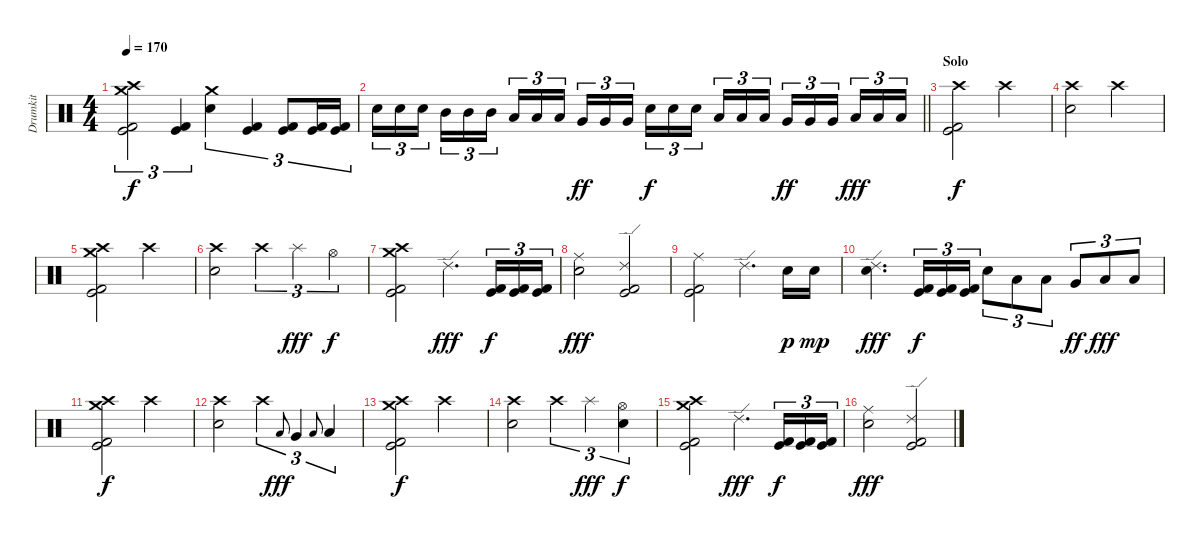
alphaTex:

\track ("Drumkit" "Drumkit") {instrument percussion}
\staff {score}
\articulation defaults
\ts (4 4)
\tempo 170
\clef neutral
\ks c
("Crash high (hit)" "Crash medium (hit)" "Kick (hit)" "Kick (hit) 2").2{tu (3 2) dy f} ("Kick (hit)" "Kick (hit) 2").4{tu (3 2)} ("Crash medium (hit)" "Electric Snare (hit)").4{tu (3 2)} ("Kick (hit)" "Kick (hit) 2").4{tu (3 2)} ("Kick (hit)" "Kick (hit) 2").8{tu (3 2)} ("Kick (hit)" "Kick (hit) 2").16{tu (3 2)} ("Kick (hit)" "Kick (hit) 2").16{tu (3 2)} |
\barLineRight lightlight "Electric Snare (hit)".16{tu (3 2)} "Electric Snare (hit)".16{tu (3 2)} "Electric Snare (hit)".16{tu (3 2) beam splitsecondary} "Mid Tom (hit)".16{tu (3 2)} "Mid Tom (hit)".16{tu (3 2)} "Mid Tom (hit)".16{tu (3 2)} "Low Tom (hit)".16{tu (3 2)} "Low Tom (hit)".16{tu (3 2)} "Low Tom (hit)".16{tu (3 2) beam splitsecondary} "Very Low Tom (hit)".16{tu (3 2) dy ff} "Very Low Tom (hit)".16{tu (3 2)} "Very Low Tom (hit)".16{tu (3 2)} "Electric Snare (hit)".16{tu (3 2) dy f} "Electric Snare (hit)".16{tu (3 2)} "Electric Snare (hit)".16{tu (3 2) beam splitsecondary} "Low Tom (hit)".16{tu (3 2)} "Low Tom (hit)".16{tu (3 2)} "Low Tom (hit)".16{tu (3 2)} "Very Low Tom (hit)".16{tu (3 2) dy ff} "Very Low Tom (hit)".16{tu (3 2)} "Very Low Tom (hit)".16{tu (3 2) beam splitsecondary} "Low Floor Tom (hit)".16{tu (3 2) dy fff} "Low Floor Tom (hit)".16{tu (3 2)} "Low Floor Tom (hit)".16{tu (3 2)}
|
\section ("" "Solo")
("Crash high (hit)" "Kick (hit)" "Kick (hit) 2").2{dy f} "Crash high (hit)".2 |
("Crash high (hit)" "Electric Snare (hit)").2 "Crash high (hit)".2 |
("Crash high (hit)" "Crash medium (hit)" "Kick (hit)" "Kick (hit) 2").2 "Crash high (hit)".2 |
("Crash high (hit)" "Electric Snare (hit)").2 "Crash high (hit)".4{tu (3 2)} "Splash (hit)".4{tu (3 2) dy fff} "Hi-Hat (open)".4{tu (3 2) dy f} |
("Crash high (hit)" "Crash medium (hit)" "Kick (hit)" "Kick (hit) 2").2 "Ride (edge) 2".4{d dy fff} ("Kick (hit)" "Kick (hit) 2").16{tu (3 2) dy f} ("Kick (hit)" "Kick (hit) 2").16{tu (3 2)} ("Kick (hit)" "Kick (hit) 2").16{tu (3 2)} |
("Ride (middle)" "Electric Snare (hit)").2{dy fff} ("Ride (edge) 2" "Kick (hit)" "Kick (hit) 2").2 |
("Ride (middle)" "Kick (hit)" "Kick (hit) 2").2 "Ride (edge) 2".4{d} "Electric Snare (hit)".16{dy p} "Electric Snare (hit)".16{dy mp} |
("Ride (edge) 2" "Electric Snare (hit)").4{d dy fff} ("Kick (hit)" "Kick (hit) 2").16{tu (3 2) dy f} ("Kick (hit)" "Kick (hit) 2").16{tu (3 2)} ("Kick (hit)" "Kick (hit) 2").16{tu (3 2)} "Electric Snare (hit)".8{tu (3 2)} "Low Tom (hit)".8{tu (3 2)} "Low Tom (hit)".8{tu (3 2)} "Very Low Tom (hit)".8{tu (3 2) dy ff} "Low Floor Tom (hit)".8{tu (3 2) dy fff} "Low Floor Tom (hit)".8{tu (3 2)} |
("Crash high (hit)" "Crash medium (hit)" "Kick (hit)" "Kick (hit) 2").2{dy f} "Crash high (hit)".2 |
("Crash high (hit)" "Electric Snare (hit)").2 "Crash high (hit)".4{tu (3 2)} "Low Tom (hit)".8{gr onbeat dy fff} "Very Low Tom (hit)".4{tu (3 2)} "Low Floor Tom (hit)".8{gr onbeat} "Low Floor Tom (hit)".4{tu (3 2)} |
("Crash high (hit)" "Crash medium (hit)" "Kick (hit)" "Kick (hit) 2").2{dy f} "Crash high (hit)".2 |
("Crash high (hit)" "Electric Snare (hit)").2 "Crash high (hit)".4{tu (3 2)} "Splash (hit)".4{tu (3 2) dy fff} ("Hi-Hat (open)" "Electric Snare (hit)").4{tu (3 2) dy f} |
("Crash high (hit)" "Crash medium (hit)" "Kick (hit)" "Kick (hit) 2").2 "Ride (edge) 2".4{d dy fff} ("Kick (hit)" "Kick (hit) 2").16{tu (3 2) dy f} ("Kick (hit)" "Kick (hit) 2").16{tu (3 2)} ("Kick (hit)" "Kick (hit) 2").16{tu (3 2)} |
("Ride (middle)" "Electric Snare (hit)").2{dy fff} ("Ride (edge) 2" "Kick (hit)" "Kick (hit) 2").2
